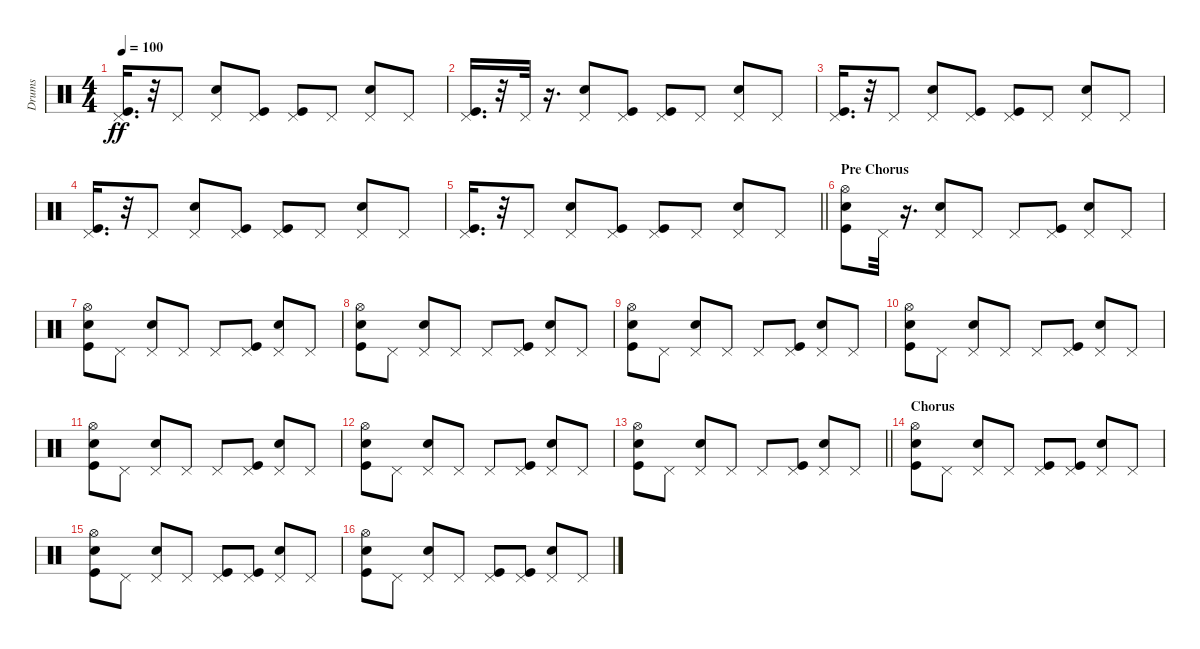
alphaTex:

\track ("Drums" "Drums") {instrument percussion}
\staff {score}
\articulation defaults
\ts (4 4)
\tempo 100
\clef neutral
\ks c
("Pedal Hi-Hat (hit)" "Kick (hit)").16{d dy ff} r.32 "Pedal Hi-Hat (hit)".8 ("Electric Snare (hit)" "Pedal Hi-Hat (hit)").8 ("Kick (hit)" "Pedal Hi-Hat (hit)").8 ("Kick (hit)" "Pedal Hi-Hat (hit)").8 "Pedal Hi-Hat (hit)".8 ("Electric Snare (hit)" "Pedal Hi-Hat (hit)").8 "Pedal Hi-Hat (hit)".8 |
("Pedal Hi-Hat (hit)" "Kick (hit)").16{d} r.32 "Pedal Hi-Hat (hit)".32 r.16{d} ("Electric Snare (hit)" "Pedal Hi-Hat (hit)").8 ("Kick (hit)" "Pedal Hi-Hat (hit)").8 ("Kick (hit)" "Pedal Hi-Hat (hit)").8 "Pedal Hi-Hat (hit)".8 ("Electric Snare (hit)" "Pedal Hi-Hat (hit)").8 "Pedal Hi-Hat (hit)".8 |
("Pedal Hi-Hat (hit)" "Kick (hit)").16{d} r.32 "Pedal Hi-Hat (hit)".8 ("Electric Snare (hit)" "Pedal Hi-Hat (hit)").8 ("Kick (hit)" "Pedal Hi-Hat (hit)").8 ("Kick (hit)" "Pedal Hi-Hat (hit)").8 "Pedal Hi-Hat (hit)".8 ("Electric Snare (hit)" "Pedal Hi-Hat (hit)").8 "Pedal Hi-Hat (hit)".8 |
("Pedal Hi-Hat (hit)" "Kick (hit)").16{d} r.32 "Pedal Hi-Hat (hit)".8 ("Electric Snare (hit)" "Pedal Hi-Hat (hit)").8 ("Kick (hit)" "Pedal Hi-Hat (hit)").8 ("Kick (hit)" "Pedal Hi-Hat (hit)").8 "Pedal Hi-Hat (hit)".8 ("Electric Snare (hit)" "Pedal Hi-Hat (hit)").8 "Pedal Hi-Hat (hit)".8 |
\barLineRight lightlight
("Pedal Hi-Hat (hit)" "Kick (hit)").16{d} r.32 "Pedal Hi-Hat (hit)".8 ("Electric Snare (hit)" "Pedal Hi-Hat (hit)").8 ("Kick (hit)" "Pedal Hi-Hat (hit)").8 ("Kick (hit)" "Pedal Hi-Hat (hit)").8 "Pedal Hi-Hat (hit)".8 ("Electric Snare (hit)" "Pedal Hi-Hat (hit)").8 "Pedal Hi-Hat (hit)".8 |
\section ("" "Pre Chorus")
("Kick (hit)" "Electric Snare (hit)" "Hi-Hat (open)").8 "Pedal Hi-Hat (hit)".32 r.16{d} ("Electric Snare (hit)" "Pedal Hi-Hat (hit)").8 "Pedal Hi-Hat (hit)".8 "Pedal Hi-Hat (hit)".8 ("Kick (hit)" "Pedal Hi-Hat (hit)").8 ("Electric Snare (hit)" "Pedal Hi-Hat (hit)").8 "Pedal Hi-Hat (hit)".8 |
("Kick (hit)" "Electric Snare (hit)" "Hi-Hat (open)").8 "Pedal Hi-Hat (hit)".8 ("Electric Snare (hit)" "Pedal Hi-Hat (hit)").8 "Pedal Hi-Hat (hit)".8 "Pedal Hi-Hat (hit)".8 ("Kick (hit)" "Pedal Hi-Hat (hit)").8 ("Electric Snare (hit)" "Pedal Hi-Hat (hit)").8 "Pedal Hi-Hat (hit)".8 |
("Kick (hit)" "Electric Snare (hit)" "Hi-Hat (open)").8 "Pedal Hi-Hat (hit)".8 ("Electric Snare (hit)" "Pedal Hi-Hat (hit)").8 "Pedal Hi-Hat (hit)".8 "Pedal Hi-Hat (hit)".8 ("Kick (hit)" "Pedal Hi-Hat (hit)").8 ("Electric Snare (hit)" "Pedal Hi-Hat (hit)").8 "Pedal Hi-Hat (hit)".8 |
("Kick (hit)" "Electric Snare (hit)" "Hi-Hat (open)").8 "Pedal Hi-Hat (hit)".8 ("Electric Snare (hit)" "Pedal Hi-Hat (hit)").8 "Pedal Hi-Hat (hit)".8 "Pedal Hi-Hat (hit)".8 ("Kick (hit)" "Pedal Hi-Hat (hit)").8 ("Electric Snare (hit)" "Pedal Hi-Hat (hit)").8 "Pedal Hi-Hat (hit)".8 |
("Kick (hit)" "Electric Snare (hit)" "Hi-Hat (open)").8 "Pedal Hi-Hat (hit)".8 ("Electric Snare (hit)" "Pedal Hi-Hat (hit)").8 "Pedal Hi-Hat (hit)".8 "Pedal Hi-Hat (hit)".8 ("Kick (hit)" "Pedal Hi-Hat (hit)").8 ("Electric Snare (hit)" "Pedal Hi-Hat (hit)").8 "Pedal Hi-Hat (hit)".8 |
("Kick (hit)" "Electric Snare (hit)" "Hi-Hat (open)").8 "Pedal Hi-Hat (hit)".8 ("Electric Snare (hit)" "Pedal Hi-Hat (hit)").8 "Pedal Hi-Hat (hit)".8 "Pedal Hi-Hat (hit)".8 ("Kick (hit)" "Pedal Hi-Hat (hit)").8 ("Electric Snare (hit)" "Pedal Hi-Hat (hit)").8 "Pedal Hi-Hat (hit)".8 |
("Kick (hit)" "Electric Snare (hit)" "Hi-Hat (open)").8 "Pedal Hi-Hat (hit)".8 ("Electric Snare (hit)" "Pedal Hi-Hat (hit)").8 "Pedal Hi-Hat (hit)".8 "Pedal Hi-Hat (hit)".8 ("Kick (hit)" "Pedal Hi-Hat (hit)").8 ("Electric Snare (hit)" "Pedal Hi-Hat (hit)").8 "Pedal Hi-Hat (hit)".8 |
\barLineRight lightlight
("Kick (hit)" "Electric Snare (hit)" "Hi-Hat (open)").8 "Pedal Hi-Hat (hit)".8 ("Electric Snare (hit)" "Pedal Hi-Hat (hit)").8 "Pedal Hi-Hat (hit)".8 "Pedal Hi-Hat (hit)".8 ("Kick (hit)" "Pedal Hi-Hat (hit)").8 ("Electric Snare (hit)" "Pedal Hi-Hat (hit)").8 "Pedal Hi-Hat (hit)".8 |
\section ("" "Chorus")
("Kick (hit)" "Electric Snare (hit)" "Hi-Hat (open)").8 "Pedal Hi-Hat (hit)".8 ("Electric Snare (hit)" "Pedal Hi-Hat (hit)").8 "Pedal Hi-Hat (hit)".8 ("Kick (hit)" "Pedal Hi-Hat (hit)").8 ("Kick (hit)" "Pedal Hi-Hat (hit)").8 ("Electric Snare (hit)" "Pedal Hi-Hat (hit)").8 "Pedal Hi-Hat (hit)".8 |
("Kick (hit)" "Electric Snare (hit)" "Hi-Hat (open)").8 "Pedal Hi-Hat (hit)".8 ("Electric Snare (hit)" "Pedal Hi-Hat (hit)").8 "Pedal Hi-Hat (hit)".8 ("Kick (hit)" "Pedal Hi-Hat (hit)").8 ("Kick (hit)" "Pedal Hi-Hat (hit)").8 ("Electric Snare (hit)" "Pedal Hi-Hat (hit)").8 "Pedal Hi-Hat (hit)".8 |
("Kick (hit)" "Electric Snare (hit)" "Hi-Hat (open)").8 "Pedal Hi-Hat (hit)".8 ("Electric Snare (hit)" "Pedal Hi-Hat (hit)").8 "Pedal Hi-Hat (hit)".8 ("Kick (hit)" "Pedal Hi-Hat (hit)").8 ("Kick (hit)" "Pedal Hi-Hat (hit)").8 ("Electric Snare (hit)" "Pedal Hi-Hat (hit)").8 "Pedal Hi-Hat (hit)".8
